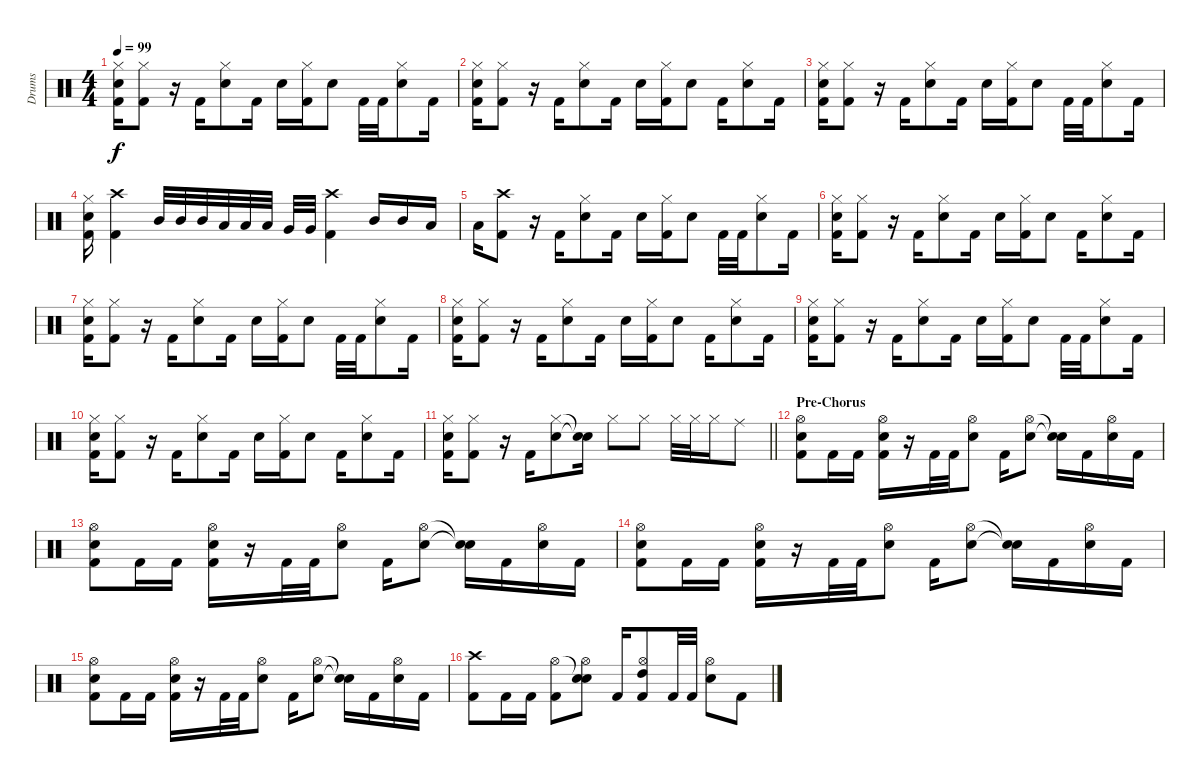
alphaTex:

\track ("Drums" "Drums") {instrument percussion}
\staff {score}
\articulation defaults
\ts (4 4)
\tempo 99
\clef neutral
\ks c
("Hi-Hat (closed)" "Snare (hit) 2" "Kick (hit) 2").16{dy f} ("Hi-Hat (closed)" "Kick (hit) 2").8 r.16 "Kick (hit) 2".16 ("Hi-Hat (closed)" "Snare (hit) 2").8 "Kick (hit) 2".16 "Snare (hit) 2".16 ("Hi-Hat (closed)" "Kick (hit) 2").16 "Snare (hit) 2".8 "Kick (hit) 2".32 "Kick (hit) 2".32 ("Hi-Hat (closed)" "Snare (hit) 2").8 "Kick (hit) 2".16 |
("Hi-Hat (closed)" "Snare (hit) 2" "Kick (hit) 2").16 ("Hi-Hat (closed)" "Kick (hit) 2").8 r.16 "Kick (hit) 2".16 ("Hi-Hat (closed)" "Snare (hit) 2").8 "Kick (hit) 2".16 "Snare (hit) 2".16 ("Hi-Hat (closed)" "Kick (hit) 2").16 "Snare (hit) 2".8 "Kick (hit) 2".16 ("Hi-Hat (closed)" "Snare (hit) 2").8 "Kick (hit) 2".16 |
("Hi-Hat (closed)" "Snare (hit) 2" "Kick (hit) 2").16 ("Hi-Hat (closed)" "Kick (hit) 2").8 r.16 "Kick (hit) 2".16 ("Hi-Hat (closed)" "Snare (hit) 2").8 "Kick (hit) 2".16 "Snare (hit) 2".16 ("Hi-Hat (closed)" "Kick (hit) 2").16 "Snare (hit) 2".8 "Kick (hit) 2".32 "Kick (hit) 2".32 ("Hi-Hat (closed)" "Snare (hit) 2").8 "Kick (hit) 2".16 |
("Hi-Hat (closed)" "Snare (hit) 2" "Kick (hit) 2").16 ("Crash high (hit)" "Kick (hit) 2").4 "Mid Tom (hit)".32 "Mid Tom (hit)".32 "Mid Tom (hit)".32 "Low Tom (hit)".32 "Low Tom (hit)".32 "Low Tom (hit)".32 "Very Low Tom (hit)".32 "Very Low Tom (hit)".32 ("Crash high (hit)" "Kick (hit) 2").4 "Mid Tom (hit)".16 "Mid Tom (hit)".16 "Low Tom (hit)".16 |
"Low Tom (hit)".16 ("Crash high (hit)" "Kick (hit) 2").8 r.16 "Kick (hit) 2".16 ("Hi-Hat (closed)" "Snare (hit) 2").8 "Kick (hit) 2".16 "Snare (hit) 2".16 ("Hi-Hat (closed)" "Kick (hit) 2").16 "Snare (hit) 2".8 "Kick (hit) 2".32 "Kick (hit) 2".32 ("Hi-Hat (closed)" "Snare (hit) 2").8 "Kick (hit) 2".16 |
("Hi-Hat (closed)" "Snare (hit) 2" "Kick (hit) 2").16 ("Hi-Hat (closed)" "Kick (hit) 2").8 r.16 "Kick (hit) 2".16 ("Hi-Hat (closed)" "Snare (hit) 2").8 "Kick (hit) 2".16 "Snare (hit) 2".16 ("Hi-Hat (closed)" "Kick (hit) 2").16 "Snare (hit) 2".8 "Kick (hit) 2".16 ("Hi-Hat (closed)" "Snare (hit) 2").8 "Kick (hit) 2".16 |
("Hi-Hat (closed)" "Snare (hit) 2" "Kick (hit) 2").16 ("Hi-Hat (closed)" "Kick (hit) 2").8 r.16 "Kick (hit) 2".16 ("Hi-Hat (closed)" "Snare (hit) 2").8 "Kick (hit) 2".16 "Snare (hit) 2".16 ("Hi-Hat (closed)" "Kick (hit) 2").16 "Snare (hit) 2".8 "Kick (hit) 2".32 "Kick (hit) 2".32 ("Hi-Hat (closed)" "Snare (hit) 2").8 "Kick (hit) 2".16 |
("Hi-Hat (closed)" "Snare (hit) 2" "Kick (hit) 2").16 ("Hi-Hat (closed)" "Kick (hit) 2").8 r.16 "Kick (hit) 2".16 ("Hi-Hat (closed)" "Snare (hit) 2").8 "Kick (hit) 2".16 "Snare (hit) 2".16 ("Hi-Hat (closed)" "Kick (hit) 2").16 "Snare (hit) 2".8 "Kick (hit) 2".16 ("Hi-Hat (closed)" "Snare (hit) 2").8 "Kick (hit) 2".16 |
("Hi-Hat (closed)" "Snare (hit) 2" "Kick (hit) 2").16 ("Hi-Hat (closed)" "Kick (hit) 2").8 r.16 "Kick (hit) 2".16 ("Hi-Hat (closed)" "Snare (hit) 2").8 "Kick (hit) 2".16 "Snare (hit) 2".16 ("Hi-Hat (closed)" "Kick (hit) 2").16 "Snare (hit) 2".8 "Kick (hit) 2".32 "Kick (hit) 2".32 ("Hi-Hat (closed)" "Snare (hit) 2").8 "Kick (hit) 2".16 |
("Hi-Hat (closed)" "Snare (hit) 2" "Kick (hit) 2").16 ("Hi-Hat (closed)" "Kick (hit) 2").8 r.16 "Kick (hit) 2".16 ("Hi-Hat (closed)" "Snare (hit) 2").8 "Kick (hit) 2".16 "Snare (hit) 2".16 ("Hi-Hat (closed)" "Kick (hit) 2").16 "Snare (hit) 2".8 "Kick (hit) 2".16 ("Hi-Hat (closed)" "Snare (hit) 2").8 "Kick (hit) 2".16 |
\barLineRight lightlight
("Hi-Hat (closed)" "Snare (hit) 2" "Kick (hit) 2").16 ("Hi-Hat (closed)" "Kick (hit) 2").8 r.16 "Kick (hit) 2".16 ("Hi-Hat (closed)" "Snare (hit) 2").8 ("Snare (hit)"{t} "Snare (hit)"{t}).16 "Hi-Hat (closed)".8 "Hi-Hat (closed)".8 "Hi-Hat (closed)".32 "Hi-Hat (closed)".32 "Hi-Hat (closed)".16 "Ride (middle)".8 |
\section ("" "Pre-Chorus")
("Hi-Hat (open)" "Snare (hit) 2" "Kick (hit) 2").8 "Kick (hit) 2".16 "Kick (hit) 2".16 ("Hi-Hat (open)" "Snare (hit) 2" "Kick (hit) 2").16 r.16 "Kick (hit) 2".32 "Kick (hit) 2".32 ("Hi-Hat (open)" "Snare (hit) 2").8 "Kick (hit) 2".16 ("Hi-Hat (open)" "Snare (hit) 2").8 ("Snare (hit)"{t} "Snare (hit)"{t}).16 "Kick (hit) 2".16 ("Hi-Hat (open)" "Snare (hit) 2").16 "Kick (hit) 2".16 |
("Hi-Hat (open)" "Snare (hit) 2" "Kick (hit) 2").8 "Kick (hit) 2".16 "Kick (hit) 2".16 ("Hi-Hat (open)" "Snare (hit) 2" "Kick (hit) 2").16 r.16 "Kick (hit) 2".32 "Kick (hit) 2".32 ("Hi-Hat (open)" "Snare (hit) 2").8 "Kick (hit) 2".16 ("Hi-Hat (open)" "Snare (hit) 2").8 ("Snare (hit)"{t} "Snare (hit)"{t}).16 "Kick (hit) 2".16 ("Hi-Hat (open)" "Snare (hit) 2").16 "Kick (hit) 2".16 |
("Hi-Hat (open)" "Snare (hit) 2" "Kick (hit) 2").8 "Kick (hit) 2".16 "Kick (hit) 2".16 ("Hi-Hat (open)" "Snare (hit) 2" "Kick (hit) 2").16 r.16 "Kick (hit) 2".32 "Kick (hit) 2".32 ("Hi-Hat (open)" "Snare (hit) 2").8 "Kick (hit) 2".16 ("Hi-Hat (open)" "Snare (hit) 2").8 ("Snare (hit)"{t} "Snare (hit)"{t}).16 "Kick (hit) 2".16 ("Hi-Hat (open)" "Snare (hit) 2").16 "Kick (hit) 2".16 |
("Hi-Hat (open)" "Snare (hit) 2" "Kick (hit) 2").8 "Kick (hit) 2".16 "Kick (hit) 2".16 ("Hi-Hat (open)" "Snare (hit) 2" "Kick (hit) 2").16 r.16 "Kick (hit) 2".32 "Kick (hit) 2".32 ("Hi-Hat (open)" "Snare (hit) 2").8 "Kick (hit) 2".16 ("Hi-Hat (open)" "Snare (hit) 2").8 ("Snare (hit)"{t} "Snare (hit)"{t}).16 "Kick (hit) 2".16 ("Hi-Hat (open)" "Snare (hit) 2").16 "Kick (hit) 2".16 |
("Crash high (hit)" "Kick (hit) 2").8 "Kick (hit) 2".16 "Kick (hit) 2".16 ("Hi-Hat (open)" "Kick (hit) 2").8 ("Snare (hit)"{t} "Hi-Hat (open)" "Snare (hit) 2").8 "Kick (hit) 2".16 ("Hi-Hat (open)" "High Tom (hit)" "Kick (hit) 2").8 "Kick (hit) 2".32 "Kick (hit) 2".32 ("Hi-Hat (open)" "Snare (hit) 2").8 "Kick (hit) 2".8
